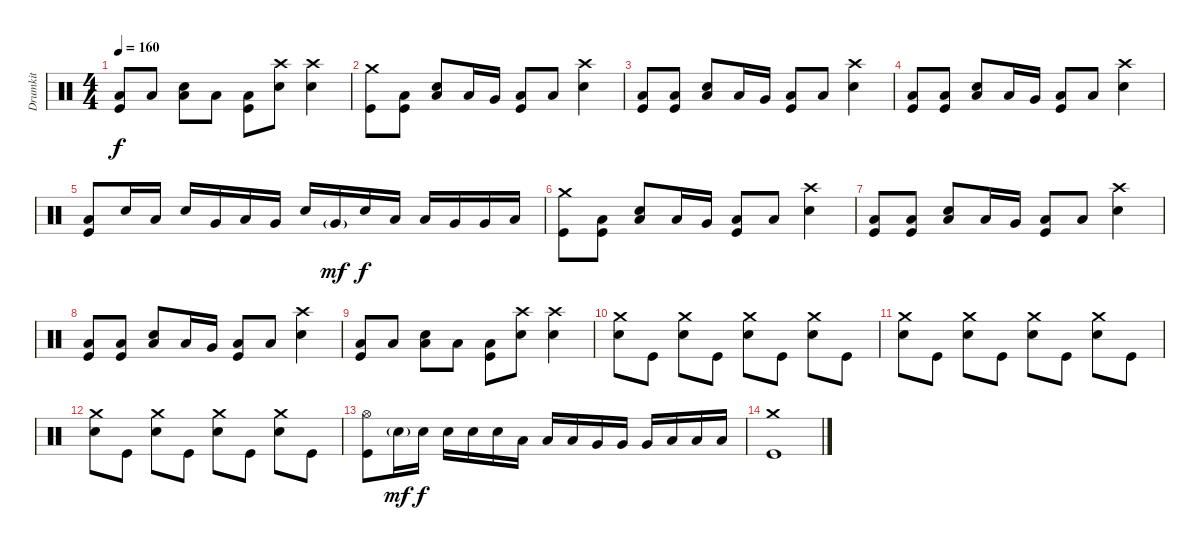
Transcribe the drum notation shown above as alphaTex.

\track ("Drumkit" "Drumkit") {instrument percussion}
\staff {score}
\articulation defaults
\ts (4 4)
\tempo 160
\clef neutral
\ks c
("Low Floor Tom (hit)" "Kick (hit)").8{dy f} "Low Floor Tom (hit)".8 ("Low Floor Tom (hit)" "Snare (hit) 2").8 "Low Floor Tom (hit)".8 ("Low Floor Tom (hit)" "Kick (hit)").8 ("Crash high (hit)" "Snare (hit) 2").8 ("Crash high (hit)" "Snare (hit) 2").4 |
("Crash medium (hit)" "Kick (hit)").8 ("Low Floor Tom (hit)" "Kick (hit)").8 ("Low Floor Tom (hit)" "Snare (hit) 2").8 "Low Tom (hit)".16 "Very Low Tom (hit)".16 ("Low Floor Tom (hit)" "Kick (hit)").8 "Low Floor Tom (hit)".8 ("Crash high (hit)" "Snare (hit) 2").4 |
("Low Floor Tom (hit)" "Kick (hit)").8 ("Low Floor Tom (hit)" "Kick (hit)").8 ("Low Floor Tom (hit)" "Snare (hit) 2").8 "Low Tom (hit)".16 "Very Low Tom (hit)".16 ("Low Floor Tom (hit)" "Kick (hit)").8 "Low Floor Tom (hit)".8 ("Crash high (hit)" "Snare (hit) 2").4 |
("Low Floor Tom (hit)" "Kick (hit)").8 ("Low Floor Tom (hit)" "Kick (hit)").8 ("Low Floor Tom (hit)" "Snare (hit) 2").8 "Low Tom (hit)".16 "Very Low Tom (hit)".16 ("Low Floor Tom (hit)" "Kick (hit)").8 "Low Floor Tom (hit)".8 ("Crash high (hit)" "Snare (hit) 2").4 |
("Low Tom (hit)" "Kick (hit)").8 "Snare (hit) 2".16 "Low Tom (hit)".16 "Snare (hit) 2".16 "Very Low Tom (hit)".16 "Low Tom (hit)".16 "Very Low Tom (hit)".16 "Snare (hit) 2".16 "Very Low Tom (hit)"{g}.16{dy mf} "Snare (hit) 2".16{dy f} "Low Tom (hit)".16 "Low Tom (hit)".16 "Very Low Tom (hit)".16 "Very Low Tom (hit)".16 "Low Floor Tom (hit)".16 |
("Crash medium (hit)" "Kick (hit)").8 ("Low Floor Tom (hit)" "Kick (hit)").8 ("Low Floor Tom (hit)" "Snare (hit) 2").8 "Low Tom (hit)".16 "Very Low Tom (hit)".16 ("Low Floor Tom (hit)" "Kick (hit)").8 "Low Floor Tom (hit)".8 ("Crash high (hit)" "Snare (hit) 2").4 |
("Low Floor Tom (hit)" "Kick (hit)").8 ("Low Floor Tom (hit)" "Kick (hit)").8 ("Low Floor Tom (hit)" "Snare (hit) 2").8 "Low Tom (hit)".16 "Very Low Tom (hit)".16 ("Low Floor Tom (hit)" "Kick (hit)").8 "Low Floor Tom (hit)".8 ("Crash high (hit)" "Snare (hit) 2").4 |
("Low Floor Tom (hit)" "Kick (hit)").8 ("Low Floor Tom (hit)" "Kick (hit)").8 ("Low Floor Tom (hit)" "Snare (hit) 2").8 "Low Tom (hit)".16 "Very Low Tom (hit)".16 ("Low Floor Tom (hit)" "Kick (hit)").8 "Low Floor Tom (hit)".8 ("Crash high (hit)" "Snare (hit) 2").4 |
("Low Floor Tom (hit)" "Kick (hit)").8 "Low Floor Tom (hit)".8 ("Low Floor Tom (hit)" "Snare (hit) 2").8 "Low Floor Tom (hit)".8 ("Low Floor Tom (hit)" "Kick (hit)").8 ("Crash high (hit)" "Snare (hit) 2").8 ("Crash high (hit)" "Snare (hit) 2").4 |
("Crash medium (hit)" "Snare (hit) 2").8 "Kick (hit)".8 ("Crash medium (hit)" "Snare (hit) 2").8 "Kick (hit)".8 ("Crash medium (hit)" "Snare (hit) 2").8 "Kick (hit)".8 ("Crash medium (hit)" "Snare (hit) 2").8 "Kick (hit)".8 |
("Crash medium (hit)" "Snare (hit) 2").8 "Kick (hit)".8 ("Crash medium (hit)" "Snare (hit) 2").8 "Kick (hit)".8 ("Crash medium (hit)" "Snare (hit) 2").8 "Kick (hit)".8 ("Crash medium (hit)" "Snare (hit) 2").8 "Kick (hit)".8 |
("Crash medium (hit)" "Snare (hit) 2").8 "Kick (hit)".8 ("Crash medium (hit)" "Snare (hit) 2").8 "Kick (hit)".8 ("Crash medium (hit)" "Snare (hit) 2").8 "Kick (hit)".8 ("Crash medium (hit)" "Snare (hit) 2").8 "Kick (hit)".8 |
("Hi-Hat (open)" "Kick (hit)").8 "Snare (hit) 2"{g}.16{dy mf} "Snare (hit) 2".16{dy f} "Snare (hit) 2".16 "Snare (hit) 2".16 "Snare (hit) 2".16 "Low Tom (hit)".16 "Low Tom (hit)".16 "Low Tom (hit)".16 "Very Low Tom (hit)".16 "Very Low Tom (hit)".16 "Very Low Tom (hit)".16 "Low Floor Tom (hit)".16 "Low Floor Tom (hit)".16 "Low Floor Tom (hit)".16 |
("Crash medium (hit)" "Kick (hit)").1
